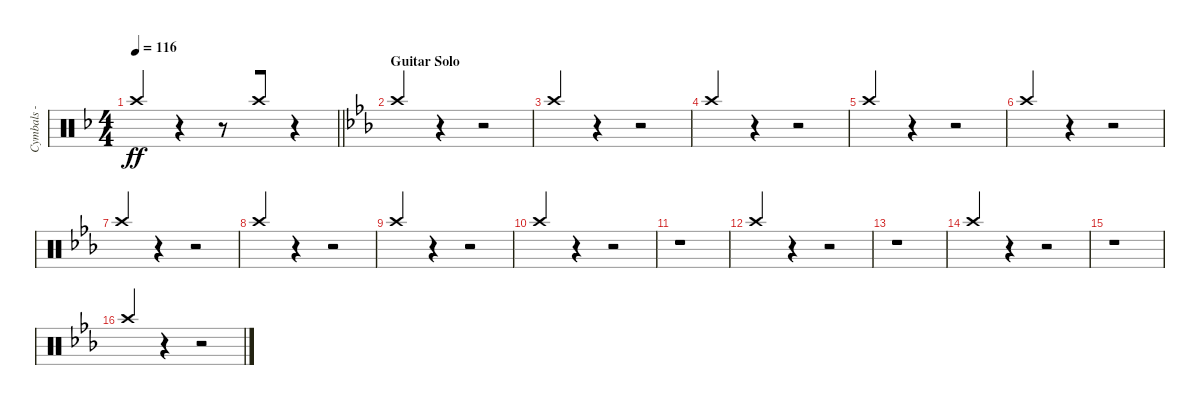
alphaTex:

\track ("Cymbals - crash" "Cymbals - ") {instrument percussion}
\staff {score}
\articulation defaults
\ts (4 4)
\tempo 116
\clef neutral
\barLineRight lightlight
\ks f "Crash high (hit)".4{dy ff beam Up beam merge}
r.4 r.8 "Crash high (hit)".8{beam Up} r.4 |
\section ("" "Guitar Solo")
\ks eb "Crash high (hit)".4{beam Up}
r.4 r.2 |
"Crash high (hit)".4{beam Up} r.4 r.2 |
"Crash high (hit)".4{beam Up} r.4 r.2 |
"Crash high (hit)".4{beam Up} r.4 r.2 |
"Crash high (hit)".4{beam Up} r.4 r.2 |
"Crash high (hit)".4{beam Up} r.4 r.2 |
"Crash high (hit)".4{beam Up} r.4 r.2 |
"Crash high (hit)".4{beam Up} r.4 r.2 |
"Crash high (hit)".4{beam Up} r.4 r.2 |
r.1 |
"Crash high (hit)".4{beam Up} r.4 r.2 |
r.1 |
"Crash high (hit)".4{beam Up} r.4 r.2 |
r.1 |
"Crash high (hit)".4{beam Up} r.4 r.2
